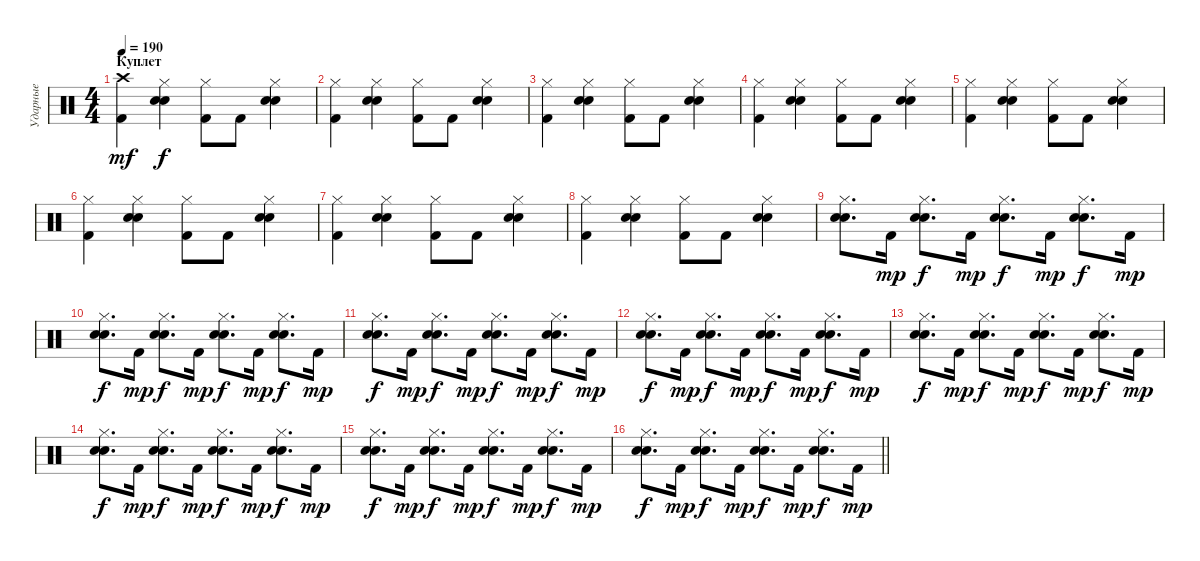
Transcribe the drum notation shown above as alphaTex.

\track ("Ударные" "Ударные") {instrument percussion}
\staff {score}
\articulation defaults
\ts (4 4)
\section ("" "Куплет")
\tempo 190
\clef neutral
\ks c
("Crash high (hit)" "Kick (hit) 2").4{dy mf} ("Hi-Hat (closed)" "Electric Snare (hit)" "Snare (hit) 2").4{dy f} ("Hi-Hat (closed)" "Kick (hit) 2").8 "Kick (hit) 2".8 ("Hi-Hat (closed)" "Electric Snare (hit)" "Snare (hit) 2").4 |
("Hi-Hat (closed)" "Kick (hit) 2").4 ("Hi-Hat (closed)" "Electric Snare (hit)" "Snare (hit) 2").4 ("Hi-Hat (closed)" "Kick (hit) 2").8 "Kick (hit) 2".8 ("Hi-Hat (closed)" "Electric Snare (hit)" "Snare (hit) 2").4 |
("Hi-Hat (closed)" "Kick (hit) 2").4 ("Hi-Hat (closed)" "Electric Snare (hit)" "Snare (hit) 2").4 ("Hi-Hat (closed)" "Kick (hit) 2").8 "Kick (hit) 2".8 ("Hi-Hat (closed)" "Electric Snare (hit)" "Snare (hit) 2").4 |
("Hi-Hat (closed)" "Kick (hit) 2").4 ("Hi-Hat (closed)" "Electric Snare (hit)" "Snare (hit) 2").4 ("Hi-Hat (closed)" "Kick (hit) 2").8 "Kick (hit) 2".8 ("Hi-Hat (closed)" "Electric Snare (hit)" "Snare (hit) 2").4 |
("Hi-Hat (closed)" "Kick (hit) 2").4 ("Hi-Hat (closed)" "Electric Snare (hit)" "Snare (hit) 2").4 ("Hi-Hat (closed)" "Kick (hit) 2").8 "Kick (hit) 2".8 ("Hi-Hat (closed)" "Electric Snare (hit)" "Snare (hit) 2").4 |
("Hi-Hat (closed)" "Kick (hit) 2").4 ("Hi-Hat (closed)" "Electric Snare (hit)" "Snare (hit) 2").4 ("Hi-Hat (closed)" "Kick (hit) 2").8 "Kick (hit) 2".8 ("Hi-Hat (closed)" "Electric Snare (hit)" "Snare (hit) 2").4 |
("Hi-Hat (closed)" "Kick (hit) 2").4 ("Hi-Hat (closed)" "Electric Snare (hit)" "Snare (hit) 2").4 ("Hi-Hat (closed)" "Kick (hit) 2").8 "Kick (hit) 2".8 ("Hi-Hat (closed)" "Electric Snare (hit)" "Snare (hit) 2").4 |
("Hi-Hat (closed)" "Kick (hit) 2").4 ("Hi-Hat (closed)" "Electric Snare (hit)" "Snare (hit) 2").4 ("Hi-Hat (closed)" "Kick (hit) 2").8 "Kick (hit) 2".8 ("Hi-Hat (closed)" "Electric Snare (hit)" "Snare (hit) 2").4 |
("Hi-Hat (closed)" "Electric Snare (hit)" "Snare (hit) 2").8{d} "Kick (hit) 2".16{dy mp} ("Hi-Hat (closed)" "Electric Snare (hit)" "Snare (hit) 2").8{d dy f} "Kick (hit) 2".16{dy mp} ("Hi-Hat (closed)" "Electric Snare (hit)" "Snare (hit) 2").8{d dy f} "Kick (hit) 2".16{dy mp} ("Hi-Hat (closed)" "Electric Snare (hit)" "Snare (hit) 2").8{d dy f} "Kick (hit) 2".16{dy mp} |
("Hi-Hat (closed)" "Electric Snare (hit)" "Snare (hit) 2").8{d dy f} "Kick (hit) 2".16{dy mp} ("Hi-Hat (closed)" "Electric Snare (hit)" "Snare (hit) 2").8{d dy f} "Kick (hit) 2".16{dy mp} ("Hi-Hat (closed)" "Electric Snare (hit)" "Snare (hit) 2").8{d dy f} "Kick (hit) 2".16{dy mp} ("Hi-Hat (closed)" "Electric Snare (hit)" "Snare (hit) 2").8{d dy f} "Kick (hit) 2".16{dy mp} |
("Hi-Hat (closed)" "Electric Snare (hit)" "Snare (hit) 2").8{d dy f} "Kick (hit) 2".16{dy mp} ("Hi-Hat (closed)" "Electric Snare (hit)" "Snare (hit) 2").8{d dy f} "Kick (hit) 2".16{dy mp} ("Hi-Hat (closed)" "Electric Snare (hit)" "Snare (hit) 2").8{d dy f} "Kick (hit) 2".16{dy mp} ("Hi-Hat (closed)" "Electric Snare (hit)" "Snare (hit) 2").8{d dy f} "Kick (hit) 2".16{dy mp} |
("Hi-Hat (closed)" "Electric Snare (hit)" "Snare (hit) 2").8{d dy f} "Kick (hit) 2".16{dy mp} ("Hi-Hat (closed)" "Electric Snare (hit)" "Snare (hit) 2").8{d dy f} "Kick (hit) 2".16{dy mp} ("Hi-Hat (closed)" "Electric Snare (hit)" "Snare (hit) 2").8{d dy f} "Kick (hit) 2".16{dy mp} ("Hi-Hat (closed)" "Electric Snare (hit)" "Snare (hit) 2").8{d dy f} "Kick (hit) 2".16{dy mp} |
("Hi-Hat (closed)" "Electric Snare (hit)" "Snare (hit) 2").8{d dy f} "Kick (hit) 2".16{dy mp} ("Hi-Hat (closed)" "Electric Snare (hit)" "Snare (hit) 2").8{d dy f} "Kick (hit) 2".16{dy mp} ("Hi-Hat (closed)" "Electric Snare (hit)" "Snare (hit) 2").8{d dy f} "Kick (hit) 2".16{dy mp} ("Hi-Hat (closed)" "Electric Snare (hit)" "Snare (hit) 2").8{d dy f} "Kick (hit) 2".16{dy mp} |
("Hi-Hat (closed)" "Electric Snare (hit)" "Snare (hit) 2").8{d dy f} "Kick (hit) 2".16{dy mp} ("Hi-Hat (closed)" "Electric Snare (hit)" "Snare (hit) 2").8{d dy f} "Kick (hit) 2".16{dy mp} ("Hi-Hat (closed)" "Electric Snare (hit)" "Snare (hit) 2").8{d dy f} "Kick (hit) 2".16{dy mp} ("Hi-Hat (closed)" "Electric Snare (hit)" "Snare (hit) 2").8{d dy f} "Kick (hit) 2".16{dy mp} |
("Hi-Hat (closed)" "Electric Snare (hit)" "Snare (hit) 2").8{d dy f} "Kick (hit) 2".16{dy mp} ("Hi-Hat (closed)" "Electric Snare (hit)" "Snare (hit) 2").8{d dy f} "Kick (hit) 2".16{dy mp} ("Hi-Hat (closed)" "Electric Snare (hit)" "Snare (hit) 2").8{d dy f} "Kick (hit) 2".16{dy mp} ("Hi-Hat (closed)" "Electric Snare (hit)" "Snare (hit) 2").8{d dy f} "Kick (hit) 2".16{dy mp} |
\barLineRight lightlight
("Hi-Hat (closed)" "Electric Snare (hit)" "Snare (hit) 2").8{d dy f} "Kick (hit) 2".16{dy mp} ("Hi-Hat (closed)" "Electric Snare (hit)" "Snare (hit) 2").8{d dy f} "Kick (hit) 2".16{dy mp} ("Hi-Hat (closed)" "Electric Snare (hit)" "Snare (hit) 2").8{d dy f} "Kick (hit) 2".16{dy mp} ("Hi-Hat (closed)" "Electric Snare (hit)" "Snare (hit) 2").8{d dy f} "Kick (hit) 2".16{dy mp}
